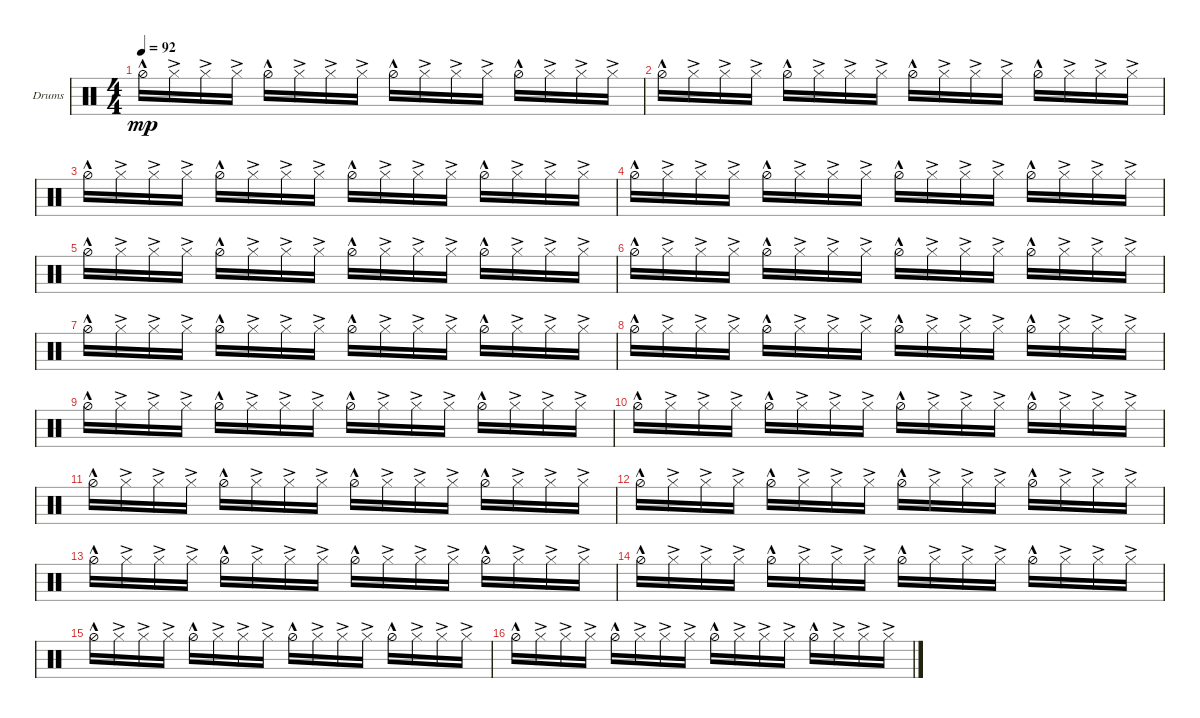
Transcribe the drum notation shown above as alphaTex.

\defaultSystemsLayout 4
\bracketExtendMode groupsimilarinstruments
\firstSystemTrackNameOrientation horizontal
\otherSystemsTrackNameOrientation horizontal
\track ("Drumkit" "Drums") {instrument percussion}
\staff {score}
\articulation defaults
\ts (4 4)
\tempo 92
\clef neutral
\ks c "Hi-Hat (half)"{hac}.16{dy mp} "Hi-Hat (closed)"{ac}.16 "Hi-Hat (closed)"{ac}.16 "Hi-Hat (closed)"{ac}.16 "Hi-Hat (half)"{hac}.16 "Hi-Hat (closed)"{ac}.16 "Hi-Hat (closed)"{ac}.16 "Hi-Hat (closed)"{ac}.16 "Hi-Hat (half)"{hac}.16 "Hi-Hat (closed)"{ac}.16 "Hi-Hat (closed)"{ac}.16 "Hi-Hat (closed)"{ac}.16 "Hi-Hat (half)"{hac}.16 "Hi-Hat (closed)"{ac}.16 "Hi-Hat (closed)"{ac}.16 "Hi-Hat (closed)"{ac}.16
|
"Hi-Hat (half)"{hac}.16 "Hi-Hat (closed)"{ac}.16 "Hi-Hat (closed)"{ac}.16 "Hi-Hat (closed)"{ac}.16 "Hi-Hat (half)"{hac}.16 "Hi-Hat (closed)"{ac}.16 "Hi-Hat (closed)"{ac}.16 "Hi-Hat (closed)"{ac}.16 "Hi-Hat (half)"{hac}.16 "Hi-Hat (closed)"{ac}.16 "Hi-Hat (closed)"{ac}.16 "Hi-Hat (closed)"{ac}.16 "Hi-Hat (half)"{hac}.16 "Hi-Hat (closed)"{ac}.16 "Hi-Hat (closed)"{ac}.16 "Hi-Hat (closed)"{ac}.16 |
"Hi-Hat (half)"{hac}.16 "Hi-Hat (closed)"{ac}.16 "Hi-Hat (closed)"{ac}.16 "Hi-Hat (closed)"{ac}.16 "Hi-Hat (half)"{hac}.16 "Hi-Hat (closed)"{ac}.16 "Hi-Hat (closed)"{ac}.16 "Hi-Hat (closed)"{ac}.16 "Hi-Hat (half)"{hac}.16 "Hi-Hat (closed)"{ac}.16 "Hi-Hat (closed)"{ac}.16 "Hi-Hat (closed)"{ac}.16 "Hi-Hat (half)"{hac}.16 "Hi-Hat (closed)"{ac}.16 "Hi-Hat (closed)"{ac}.16 "Hi-Hat (closed)"{ac}.16 |
"Hi-Hat (half)"{hac}.16 "Hi-Hat (closed)"{ac}.16 "Hi-Hat (closed)"{ac}.16 "Hi-Hat (closed)"{ac}.16 "Hi-Hat (half)"{hac}.16 "Hi-Hat (closed)"{ac}.16 "Hi-Hat (closed)"{ac}.16 "Hi-Hat (closed)"{ac}.16 "Hi-Hat (half)"{hac}.16 "Hi-Hat (closed)"{ac}.16 "Hi-Hat (closed)"{ac}.16 "Hi-Hat (closed)"{ac}.16 "Hi-Hat (half)"{hac}.16 "Hi-Hat (closed)"{ac}.16 "Hi-Hat (closed)"{ac}.16 "Hi-Hat (closed)"{ac}.16 |
"Hi-Hat (half)"{hac}.16 "Hi-Hat (closed)"{ac}.16 "Hi-Hat (closed)"{ac}.16 "Hi-Hat (closed)"{ac}.16 "Hi-Hat (half)"{hac}.16 "Hi-Hat (closed)"{ac}.16 "Hi-Hat (closed)"{ac}.16 "Hi-Hat (closed)"{ac}.16 "Hi-Hat (half)"{hac}.16 "Hi-Hat (closed)"{ac}.16 "Hi-Hat (closed)"{ac}.16 "Hi-Hat (closed)"{ac}.16 "Hi-Hat (half)"{hac}.16 "Hi-Hat (closed)"{ac}.16 "Hi-Hat (closed)"{ac}.16 "Hi-Hat (closed)"{ac}.16 |
"Hi-Hat (half)"{hac}.16 "Hi-Hat (closed)"{ac}.16 "Hi-Hat (closed)"{ac}.16 "Hi-Hat (closed)"{ac}.16 "Hi-Hat (half)"{hac}.16 "Hi-Hat (closed)"{ac}.16 "Hi-Hat (closed)"{ac}.16 "Hi-Hat (closed)"{ac}.16 "Hi-Hat (half)"{hac}.16 "Hi-Hat (closed)"{ac}.16 "Hi-Hat (closed)"{ac}.16 "Hi-Hat (closed)"{ac}.16 "Hi-Hat (half)"{hac}.16 "Hi-Hat (closed)"{ac}.16 "Hi-Hat (closed)"{ac}.16 "Hi-Hat (closed)"{ac}.16 |
"Hi-Hat (half)"{hac}.16 "Hi-Hat (closed)"{ac}.16 "Hi-Hat (closed)"{ac}.16 "Hi-Hat (closed)"{ac}.16 "Hi-Hat (half)"{hac}.16 "Hi-Hat (closed)"{ac}.16 "Hi-Hat (closed)"{ac}.16 "Hi-Hat (closed)"{ac}.16 "Hi-Hat (half)"{hac}.16 "Hi-Hat (closed)"{ac}.16 "Hi-Hat (closed)"{ac}.16 "Hi-Hat (closed)"{ac}.16 "Hi-Hat (half)"{hac}.16 "Hi-Hat (closed)"{ac}.16 "Hi-Hat (closed)"{ac}.16 "Hi-Hat (closed)"{ac}.16 |
"Hi-Hat (half)"{hac}.16 "Hi-Hat (closed)"{ac}.16 "Hi-Hat (closed)"{ac}.16 "Hi-Hat (closed)"{ac}.16 "Hi-Hat (half)"{hac}.16 "Hi-Hat (closed)"{ac}.16 "Hi-Hat (closed)"{ac}.16 "Hi-Hat (closed)"{ac}.16 "Hi-Hat (half)"{hac}.16 "Hi-Hat (closed)"{ac}.16 "Hi-Hat (closed)"{ac}.16 "Hi-Hat (closed)"{ac}.16 "Hi-Hat (half)"{hac}.16 "Hi-Hat (closed)"{ac}.16 "Hi-Hat (closed)"{ac}.16 "Hi-Hat (closed)"{ac}.16 |
"Hi-Hat (half)"{hac}.16 "Hi-Hat (closed)"{ac}.16 "Hi-Hat (closed)"{ac}.16 "Hi-Hat (closed)"{ac}.16 "Hi-Hat (half)"{hac}.16 "Hi-Hat (closed)"{ac}.16 "Hi-Hat (closed)"{ac}.16 "Hi-Hat (closed)"{ac}.16 "Hi-Hat (half)"{hac}.16 "Hi-Hat (closed)"{ac}.16 "Hi-Hat (closed)"{ac}.16 "Hi-Hat (closed)"{ac}.16 "Hi-Hat (half)"{hac}.16 "Hi-Hat (closed)"{ac}.16 "Hi-Hat (closed)"{ac}.16 "Hi-Hat (closed)"{ac}.16 |
"Hi-Hat (half)"{hac}.16 "Hi-Hat (closed)"{ac}.16 "Hi-Hat (closed)"{ac}.16 "Hi-Hat (closed)"{ac}.16 "Hi-Hat (half)"{hac}.16 "Hi-Hat (closed)"{ac}.16 "Hi-Hat (closed)"{ac}.16 "Hi-Hat (closed)"{ac}.16 "Hi-Hat (half)"{hac}.16 "Hi-Hat (closed)"{ac}.16 "Hi-Hat (closed)"{ac}.16 "Hi-Hat (closed)"{ac}.16 "Hi-Hat (half)"{hac}.16 "Hi-Hat (closed)"{ac}.16 "Hi-Hat (closed)"{ac}.16 "Hi-Hat (closed)"{ac}.16 |
"Hi-Hat (half)"{hac}.16 "Hi-Hat (closed)"{ac}.16 "Hi-Hat (closed)"{ac}.16 "Hi-Hat (closed)"{ac}.16 "Hi-Hat (half)"{hac}.16 "Hi-Hat (closed)"{ac}.16 "Hi-Hat (closed)"{ac}.16 "Hi-Hat (closed)"{ac}.16 "Hi-Hat (half)"{hac}.16 "Hi-Hat (closed)"{ac}.16 "Hi-Hat (closed)"{ac}.16 "Hi-Hat (closed)"{ac}.16 "Hi-Hat (half)"{hac}.16 "Hi-Hat (closed)"{ac}.16 "Hi-Hat (closed)"{ac}.16 "Hi-Hat (closed)"{ac}.16 |
"Hi-Hat (half)"{hac}.16 "Hi-Hat (closed)"{ac}.16 "Hi-Hat (closed)"{ac}.16 "Hi-Hat (closed)"{ac}.16 "Hi-Hat (half)"{hac}.16 "Hi-Hat (closed)"{ac}.16 "Hi-Hat (closed)"{ac}.16 "Hi-Hat (closed)"{ac}.16 "Hi-Hat (half)"{hac}.16 "Hi-Hat (closed)"{ac}.16 "Hi-Hat (closed)"{ac}.16 "Hi-Hat (closed)"{ac}.16 "Hi-Hat (half)"{hac}.16 "Hi-Hat (closed)"{ac}.16 "Hi-Hat (closed)"{ac}.16 "Hi-Hat (closed)"{ac}.16 |
"Hi-Hat (half)"{hac}.16 "Hi-Hat (closed)"{ac}.16 "Hi-Hat (closed)"{ac}.16 "Hi-Hat (closed)"{ac}.16 "Hi-Hat (half)"{hac}.16 "Hi-Hat (closed)"{ac}.16 "Hi-Hat (closed)"{ac}.16 "Hi-Hat (closed)"{ac}.16 "Hi-Hat (half)"{hac}.16 "Hi-Hat (closed)"{ac}.16 "Hi-Hat (closed)"{ac}.16 "Hi-Hat (closed)"{ac}.16 "Hi-Hat (half)"{hac}.16 "Hi-Hat (closed)"{ac}.16 "Hi-Hat (closed)"{ac}.16 "Hi-Hat (closed)"{ac}.16 |
"Hi-Hat (half)"{hac}.16 "Hi-Hat (closed)"{ac}.16 "Hi-Hat (closed)"{ac}.16 "Hi-Hat (closed)"{ac}.16 "Hi-Hat (half)"{hac}.16 "Hi-Hat (closed)"{ac}.16 "Hi-Hat (closed)"{ac}.16 "Hi-Hat (closed)"{ac}.16 "Hi-Hat (half)"{hac}.16 "Hi-Hat (closed)"{ac}.16 "Hi-Hat (closed)"{ac}.16 "Hi-Hat (closed)"{ac}.16 "Hi-Hat (half)"{hac}.16 "Hi-Hat (closed)"{ac}.16 "Hi-Hat (closed)"{ac}.16 "Hi-Hat (closed)"{ac}.16 |
"Hi-Hat (half)"{hac}.16 "Hi-Hat (closed)"{ac}.16 "Hi-Hat (closed)"{ac}.16 "Hi-Hat (closed)"{ac}.16 "Hi-Hat (half)"{hac}.16 "Hi-Hat (closed)"{ac}.16 "Hi-Hat (closed)"{ac}.16 "Hi-Hat (closed)"{ac}.16 "Hi-Hat (half)"{hac}.16 "Hi-Hat (closed)"{ac}.16 "Hi-Hat (closed)"{ac}.16 "Hi-Hat (closed)"{ac}.16 "Hi-Hat (half)"{hac}.16 "Hi-Hat (closed)"{ac}.16 "Hi-Hat (closed)"{ac}.16 "Hi-Hat (closed)"{ac}.16 |
"Hi-Hat (half)"{hac}.16 "Hi-Hat (closed)"{ac}.16 "Hi-Hat (closed)"{ac}.16 "Hi-Hat (closed)"{ac}.16 "Hi-Hat (half)"{hac}.16 "Hi-Hat (closed)"{ac}.16 "Hi-Hat (closed)"{ac}.16 "Hi-Hat (closed)"{ac}.16 "Hi-Hat (half)"{hac}.16 "Hi-Hat (closed)"{ac}.16 "Hi-Hat (closed)"{ac}.16 "Hi-Hat (closed)"{ac}.16 "Hi-Hat (half)"{hac}.16 "Hi-Hat (closed)"{ac}.16 "Hi-Hat (closed)"{ac}.16 "Hi-Hat (closed)"{ac}.16
